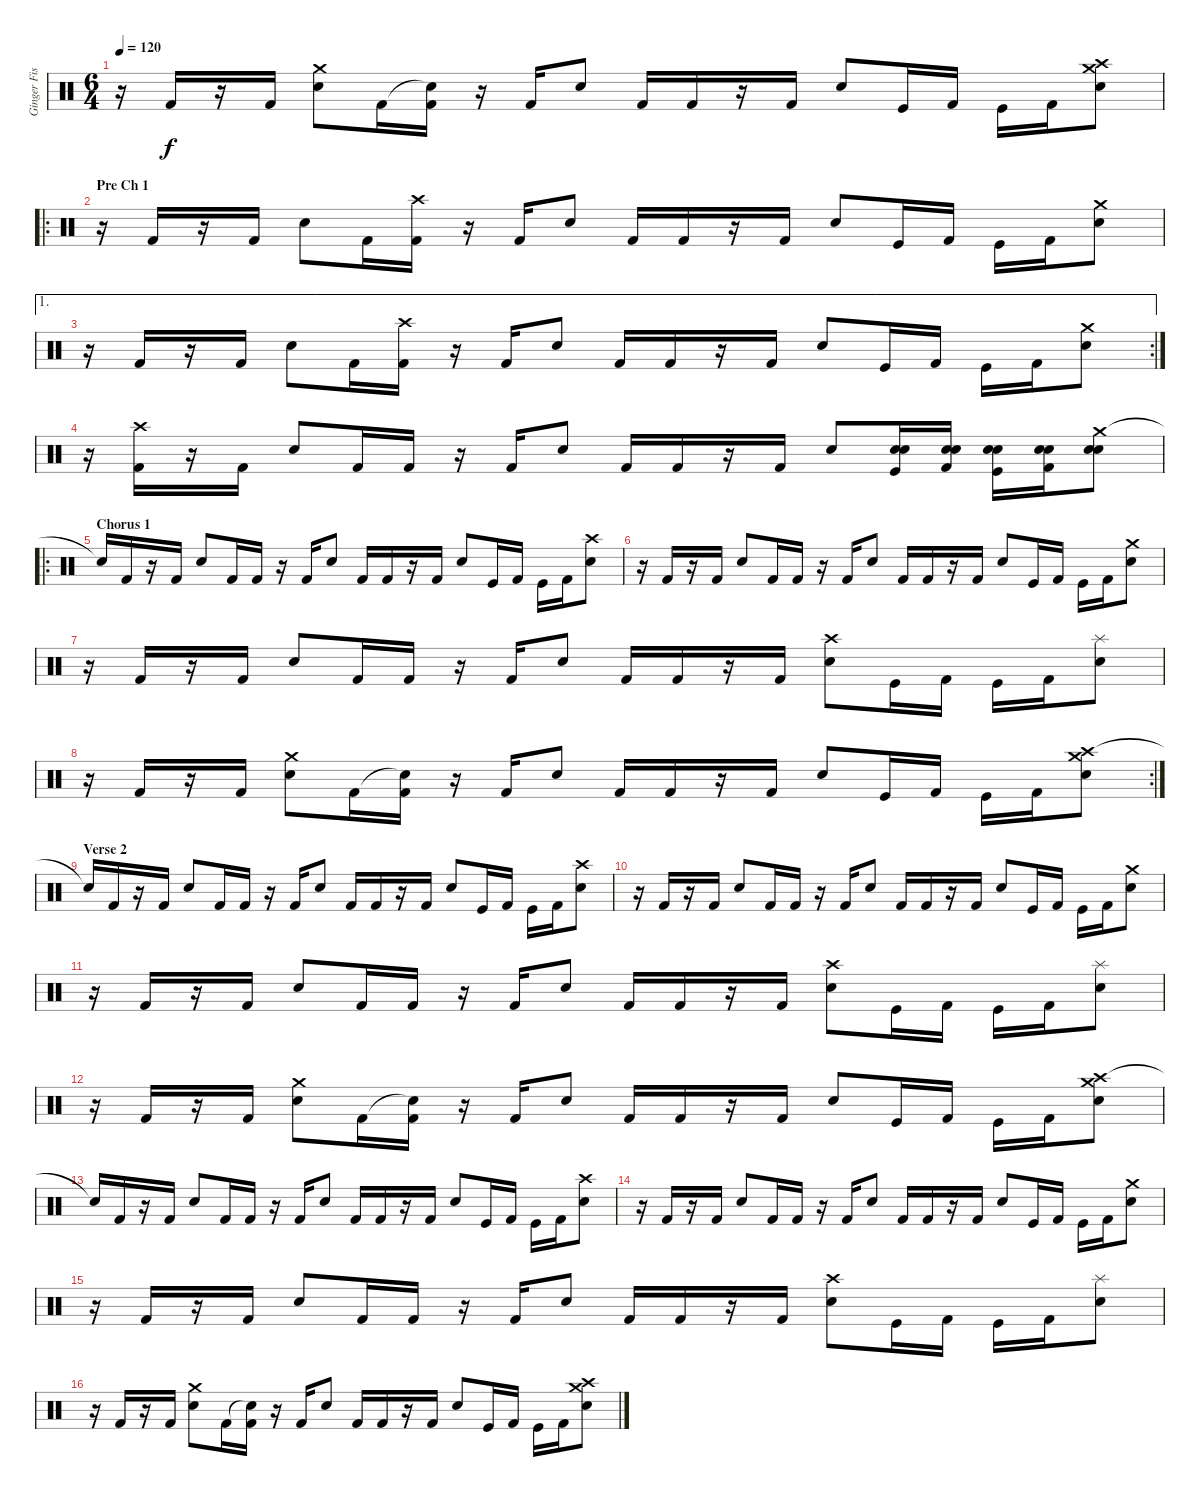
\track ("Ginger Fish" "Ginger Fis") {instrument percussion}
\staff {score}
\articulation defaults
\ts (6 4)
\tempo 120
\clef neutral
\ks c
r.16{dy f} "Kick (hit) 2".16 r.16 "Kick (hit) 2".16 ("Crash medium (hit)" "Snare (hit) 2").8 "Kick (hit) 2".16 ("Snare (hit)"{t} "Kick (hit) 2").16 r.16 "Kick (hit) 2".16 "Snare (hit) 2".8 "Kick (hit) 2".16 "Kick (hit) 2".16 r.16 "Kick (hit) 2".16 "Snare (hit) 2".8 "Kick (hit)".16 "Kick (hit) 2".16 "Kick (hit)".16 "Kick (hit) 2".16 ("Crash high (hit)" "Crash medium (hit)" "Snare (hit) 2").8 |
\ro
\section ("" "Pre Ch 1")
r.16 "Kick (hit) 2".16 r.16 "Kick (hit) 2".16 "Snare (hit) 2".8 "Kick (hit) 2".16 ("Crash high (hit)" "Kick (hit) 2").16 r.16 "Kick (hit) 2".16 "Snare (hit) 2".8 "Kick (hit) 2".16 "Kick (hit) 2".16 r.16 "Kick (hit) 2".16 "Snare (hit) 2".8 "Kick (hit)".16 "Kick (hit) 2".16 "Kick (hit)".16 "Kick (hit) 2".16 ("Crash medium (hit)" "Snare (hit) 2").8 |
\ae 1
\rc 2
r.16 "Kick (hit) 2".16 r.16 "Kick (hit) 2".16 "Snare (hit) 2".8 "Kick (hit) 2".16 ("Crash high (hit)" "Kick (hit) 2").16 r.16 "Kick (hit) 2".16 "Snare (hit) 2".8 "Kick (hit) 2".16 "Kick (hit) 2".16 r.16 "Kick (hit) 2".16 "Snare (hit) 2".8 "Kick (hit)".16 "Kick (hit) 2".16 "Kick (hit)".16 "Kick (hit) 2".16 ("Crash medium (hit)" "Snare (hit) 2").8 |
r.16 ("Crash high (hit)" "Kick (hit) 2").16 r.16 "Kick (hit) 2".16 "Snare (hit) 2".8 "Kick (hit) 2".16 "Kick (hit) 2".16 r.16 "Kick (hit) 2".16 "Snare (hit) 2".8 "Kick (hit) 2".16 "Kick (hit) 2".16 r.16 "Kick (hit) 2".16 "Snare (hit) 2".8 ("Electric Snare (hit)" "Electric Snare (hit)" "Kick (hit)").16 ("Electric Snare (hit)" "Electric Snare (hit)" "Kick (hit) 2").16 ("Electric Snare (hit)" "Electric Snare (hit)" "Kick (hit)").16 ("Electric Snare (hit)" "Electric Snare (hit)" "Kick (hit) 2").16 ("Crash medium (hit)" "Electric Snare (hit)" "Snare (hit) 2").8 |
\ro
\section ("" "Chorus 1")
"Snare (hit)"{t}.16 "Kick (hit) 2".16 r.16 "Kick (hit) 2".16 "Snare (hit) 2".8 "Kick (hit) 2".16 "Kick (hit) 2".16 r.16 "Kick (hit) 2".16 "Snare (hit) 2".8 "Kick (hit) 2".16 "Kick (hit) 2".16 r.16 "Kick (hit) 2".16 "Snare (hit) 2".8 "Kick (hit)".16 "Kick (hit) 2".16 "Kick (hit)".16 "Kick (hit) 2".16 ("Crash high (hit)" "Snare (hit) 2").8 |
r.16 "Kick (hit) 2".16 r.16 "Kick (hit) 2".16 "Snare (hit) 2".8 "Kick (hit) 2".16 "Kick (hit) 2".16 r.16 "Kick (hit) 2".16 "Snare (hit) 2".8 "Kick (hit) 2".16 "Kick (hit) 2".16 r.16 "Kick (hit) 2".16 "Snare (hit) 2".8 "Kick (hit)".16 "Kick (hit) 2".16 "Kick (hit)".16 "Kick (hit) 2".16 ("Crash medium (hit)" "Snare (hit) 2").8 |
r.16 "Kick (hit) 2".16 r.16 "Kick (hit) 2".16 "Snare (hit) 2".8 "Kick (hit) 2".16 "Kick (hit) 2".16 r.16 "Kick (hit) 2".16 "Snare (hit) 2".8 "Kick (hit) 2".16 "Kick (hit) 2".16 r.16 "Kick (hit) 2".16 ("Crash high (hit)" "Snare (hit) 2").8 "Kick (hit)".16 "Kick (hit) 2".16 "Kick (hit)".16 "Kick (hit) 2".16 ("Splash (hit)" "Snare (hit) 2").8 |
\rc 2
r.16 "Kick (hit) 2".16 r.16 "Kick (hit) 2".16 ("Crash medium (hit)" "Snare (hit) 2").8 "Kick (hit) 2".16 ("Snare (hit)"{t} "Kick (hit) 2").16 r.16 "Kick (hit) 2".16 "Snare (hit) 2".8 "Kick (hit) 2".16 "Kick (hit) 2".16 r.16 "Kick (hit) 2".16 "Snare (hit) 2".8 "Kick (hit)".16 "Kick (hit) 2".16 "Kick (hit)".16 "Kick (hit) 2".16 ("Crash high (hit)" "Crash medium (hit)" "Snare (hit) 2").8 |
\section ("" "Verse 2")
"Snare (hit)"{t}.16 "Kick (hit) 2".16 r.16 "Kick (hit) 2".16 "Snare (hit) 2".8 "Kick (hit) 2".16 "Kick (hit) 2".16 r.16 "Kick (hit) 2".16 "Snare (hit) 2".8 "Kick (hit) 2".16 "Kick (hit) 2".16 r.16 "Kick (hit) 2".16 "Snare (hit) 2".8 "Kick (hit)".16 "Kick (hit) 2".16 "Kick (hit)".16 "Kick (hit) 2".16 ("Crash high (hit)" "Snare (hit) 2").8 |
r.16 "Kick (hit) 2".16 r.16 "Kick (hit) 2".16 "Snare (hit) 2".8 "Kick (hit) 2".16 "Kick (hit) 2".16 r.16 "Kick (hit) 2".16 "Snare (hit) 2".8 "Kick (hit) 2".16 "Kick (hit) 2".16 r.16 "Kick (hit) 2".16 "Snare (hit) 2".8 "Kick (hit)".16 "Kick (hit) 2".16 "Kick (hit)".16 "Kick (hit) 2".16 ("Crash medium (hit)" "Snare (hit) 2").8 |
r.16 "Kick (hit) 2".16 r.16 "Kick (hit) 2".16 "Snare (hit) 2".8 "Kick (hit) 2".16 "Kick (hit) 2".16 r.16 "Kick (hit) 2".16 "Snare (hit) 2".8 "Kick (hit) 2".16 "Kick (hit) 2".16 r.16 "Kick (hit) 2".16 ("Crash high (hit)" "Snare (hit) 2").8 "Kick (hit)".16 "Kick (hit) 2".16 "Kick (hit)".16 "Kick (hit) 2".16 ("Splash (hit)" "Snare (hit) 2").8 |
r.16 "Kick (hit) 2".16 r.16 "Kick (hit) 2".16 ("Crash medium (hit)" "Snare (hit) 2").8 "Kick (hit) 2".16 ("Snare (hit)"{t} "Kick (hit) 2").16 r.16 "Kick (hit) 2".16 "Snare (hit) 2".8 "Kick (hit) 2".16 "Kick (hit) 2".16 r.16 "Kick (hit) 2".16 "Snare (hit) 2".8 "Kick (hit)".16 "Kick (hit) 2".16 "Kick (hit)".16 "Kick (hit) 2".16 ("Crash high (hit)" "Crash medium (hit)" "Snare (hit) 2").8 |
"Snare (hit)"{t}.16 "Kick (hit) 2".16 r.16 "Kick (hit) 2".16 "Snare (hit) 2".8 "Kick (hit) 2".16 "Kick (hit) 2".16 r.16 "Kick (hit) 2".16 "Snare (hit) 2".8 "Kick (hit) 2".16 "Kick (hit) 2".16 r.16 "Kick (hit) 2".16 "Snare (hit) 2".8 "Kick (hit)".16 "Kick (hit) 2".16 "Kick (hit)".16 "Kick (hit) 2".16 ("Crash high (hit)" "Snare (hit) 2").8 |
r.16 "Kick (hit) 2".16 r.16 "Kick (hit) 2".16 "Snare (hit) 2".8 "Kick (hit) 2".16 "Kick (hit) 2".16 r.16 "Kick (hit) 2".16 "Snare (hit) 2".8 "Kick (hit) 2".16 "Kick (hit) 2".16 r.16 "Kick (hit) 2".16 "Snare (hit) 2".8 "Kick (hit)".16 "Kick (hit) 2".16 "Kick (hit)".16 "Kick (hit) 2".16 ("Crash medium (hit)" "Snare (hit) 2").8 |
r.16 "Kick (hit) 2".16 r.16 "Kick (hit) 2".16 "Snare (hit) 2".8 "Kick (hit) 2".16 "Kick (hit) 2".16 r.16 "Kick (hit) 2".16 "Snare (hit) 2".8 "Kick (hit) 2".16 "Kick (hit) 2".16 r.16 "Kick (hit) 2".16 ("Crash high (hit)" "Snare (hit) 2").8 "Kick (hit)".16 "Kick (hit) 2".16 "Kick (hit)".16 "Kick (hit) 2".16 ("Splash (hit)" "Snare (hit) 2").8 |
r.16 "Kick (hit) 2".16 r.16 "Kick (hit) 2".16 ("Crash medium (hit)" "Snare (hit) 2").8 "Kick (hit) 2".16 ("Snare (hit)"{t} "Kick (hit) 2").16 r.16 "Kick (hit) 2".16 "Snare (hit) 2".8 "Kick (hit) 2".16 "Kick (hit) 2".16 r.16 "Kick (hit) 2".16 "Snare (hit) 2".8 "Kick (hit)".16 "Kick (hit) 2".16 "Kick (hit)".16 "Kick (hit) 2".16 ("Crash high (hit)" "Crash medium (hit)" "Snare (hit) 2").8
